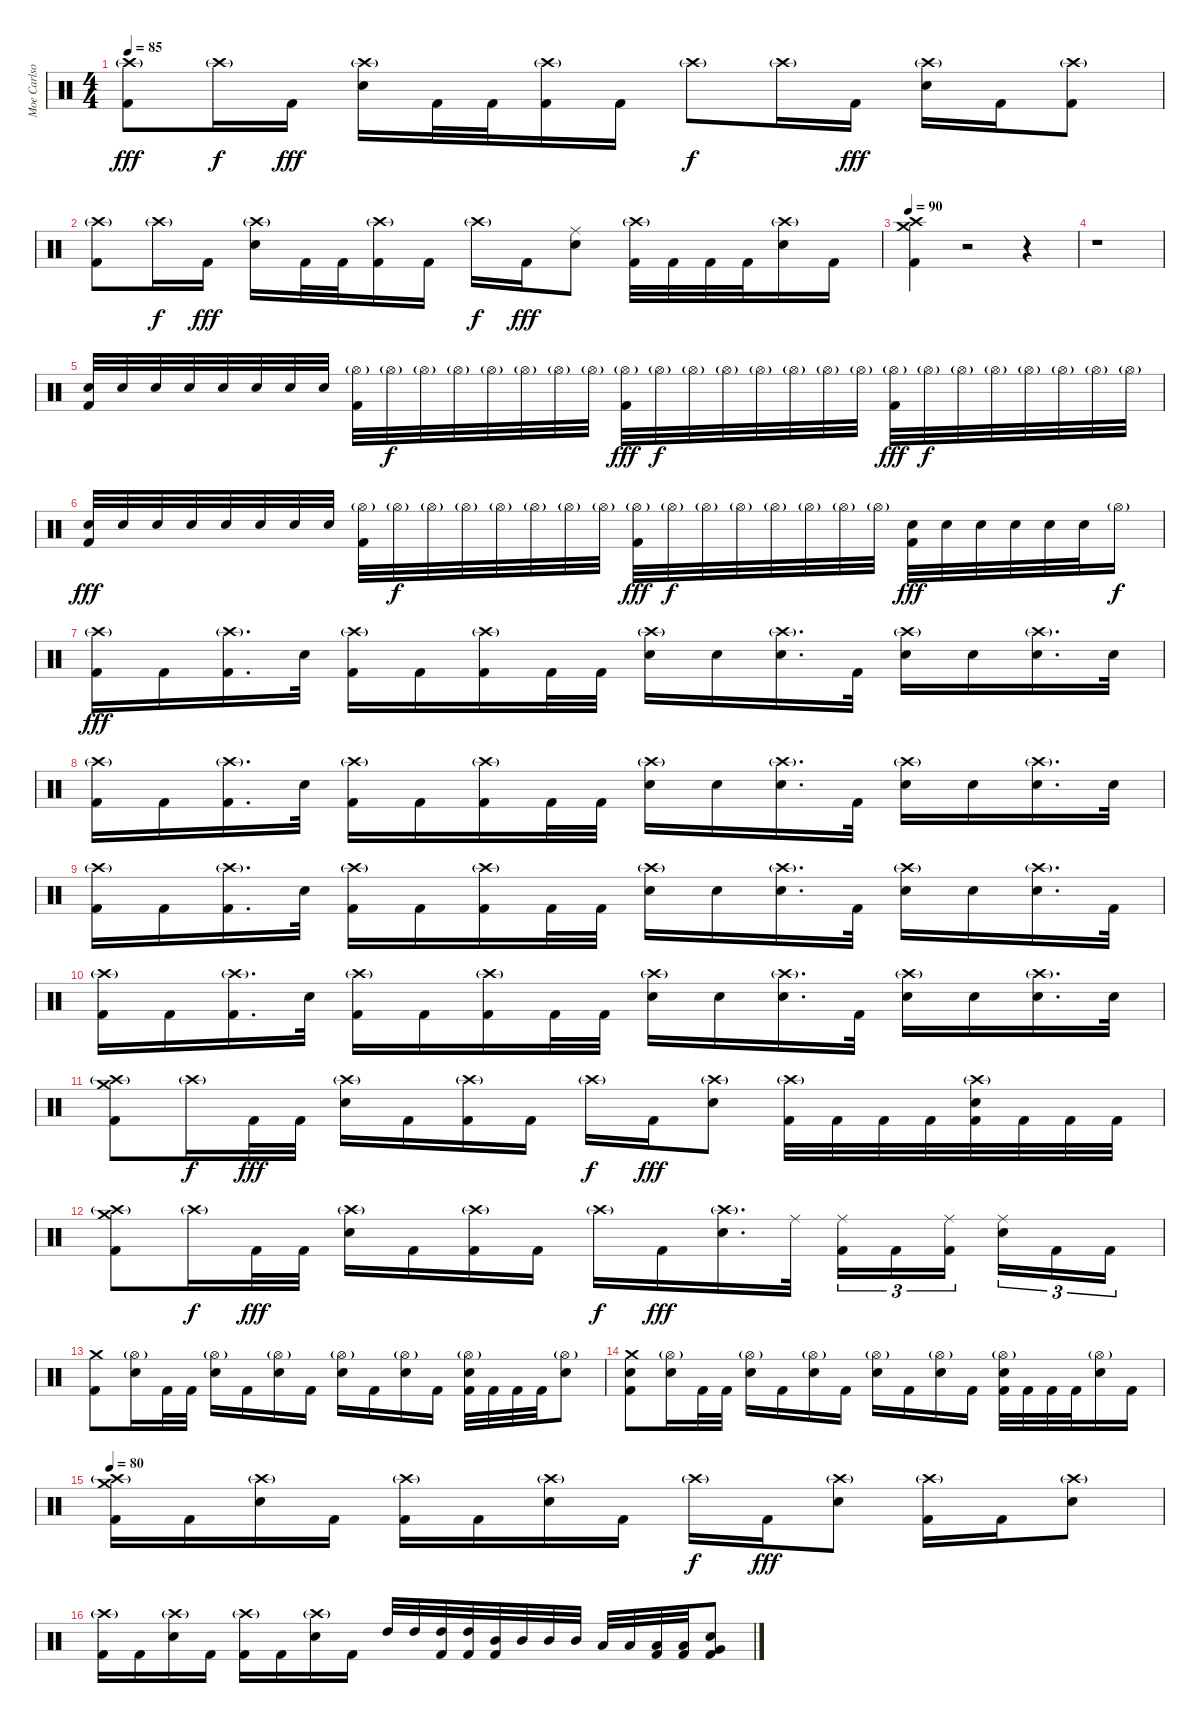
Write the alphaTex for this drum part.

\track ("Moe Carlson" "Moe Carlso") {instrument percussion}
\staff {score}
\articulation defaults
\ts (4 4)
\tempo 85
\clef neutral
\ks c
("Crash high (hit)"{g} "Kick (hit) 2").8{dy fff} "Crash high (hit)"{g}.16{dy f} "Kick (hit) 2".16{dy fff} ("Crash high (hit)"{g} "Electric Snare (hit)").16 "Kick (hit) 2".32 "Kick (hit) 2".32 ("Crash high (hit)"{g} "Kick (hit) 2").16 "Kick (hit) 2".16 "Crash high (hit)"{g}.8{dy f} "Crash high (hit)"{g}.16 "Kick (hit) 2".16{dy fff} ("Crash high (hit)"{g} "Electric Snare (hit)").16 "Kick (hit) 2".16 ("Crash high (hit)"{g} "Kick (hit) 2").8 |
("Crash high (hit)"{g} "Kick (hit) 2").8 "Crash high (hit)"{g}.16{dy f} "Kick (hit) 2".16{dy fff} ("Crash high (hit)"{g} "Electric Snare (hit)").16 "Kick (hit) 2".32 "Kick (hit) 2".32 ("Crash high (hit)"{g} "Kick (hit) 2").16 "Kick (hit) 2".16 "Crash high (hit)"{g}.16{dy f} "Kick (hit) 2".16{dy fff} ("Ride (middle)" "Electric Snare (hit)").8 ("Crash high (hit)"{g} "Kick (hit) 2").32 "Kick (hit) 2".32 "Kick (hit) 2".32 "Kick (hit) 2".32 ("Crash high (hit)"{g} "Electric Snare (hit)").16 "Kick (hit) 2".16 |
\tempo 90
("Crash high (hit)" "Crash medium (hit)" "Kick (hit) 2").4 r.2 r.4 |
r.1 |
("Electric Snare (hit)" "Kick (hit) 2").32{volume 12} "Electric Snare (hit)".32 "Electric Snare (hit)".32 "Electric Snare (hit)".32 "Electric Snare (hit)".32 "Electric Snare (hit)".32 "Electric Snare (hit)".32 "Electric Snare (hit)".32 ("Hi-Hat (open)"{g} "Kick (hit) 2").32 "Hi-Hat (open)"{g}.32{dy f} "Hi-Hat (open)"{g}.32 "Hi-Hat (open)"{g}.32 "Hi-Hat (open)"{g}.32 "Hi-Hat (open)"{g}.32 "Hi-Hat (open)"{g}.32 "Hi-Hat (open)"{g}.32 ("Hi-Hat (open)"{g} "Kick (hit) 2").32{dy fff} "Hi-Hat (open)"{g}.32{dy f} "Hi-Hat (open)"{g}.32 "Hi-Hat (open)"{g}.32 "Hi-Hat (open)"{g}.32 "Hi-Hat (open)"{g}.32 "Hi-Hat (open)"{g}.32 "Hi-Hat (open)"{g}.32 ("Hi-Hat (open)"{g} "Kick (hit) 2").32{dy fff} "Hi-Hat (open)"{g}.32{dy f} "Hi-Hat (open)"{g}.32 "Hi-Hat (open)"{g}.32 "Hi-Hat (open)"{g}.32 "Hi-Hat (open)"{g}.32 "Hi-Hat (open)"{g}.32 "Hi-Hat (open)"{g}.32 |
("Electric Snare (hit)" "Kick (hit) 2").32{dy fff} "Electric Snare (hit)".32 "Electric Snare (hit)".32 "Electric Snare (hit)".32 "Electric Snare (hit)".32 "Electric Snare (hit)".32 "Electric Snare (hit)".32 "Electric Snare (hit)".32 ("Hi-Hat (open)"{g} "Kick (hit) 2").32 "Hi-Hat (open)"{g}.32{dy f} "Hi-Hat (open)"{g}.32 "Hi-Hat (open)"{g}.32 "Hi-Hat (open)"{g}.32 "Hi-Hat (open)"{g}.32 "Hi-Hat (open)"{g}.32 "Hi-Hat (open)"{g}.32 ("Hi-Hat (open)"{g} "Kick (hit) 2").32{dy fff} "Hi-Hat (open)"{g}.32{dy f} "Hi-Hat (open)"{g}.32 "Hi-Hat (open)"{g}.32 "Hi-Hat (open)"{g}.32 "Hi-Hat (open)"{g}.32 "Hi-Hat (open)"{g}.32 "Hi-Hat (open)"{g}.32 ("Electric Snare (hit)" "Kick (hit) 2").32{dy fff} "Electric Snare (hit)".32 "Electric Snare (hit)".32 "Electric Snare (hit)".32 "Electric Snare (hit)".32 "Electric Snare (hit)".32 "Hi-Hat (open)"{g}.16{dy f} |
("Crash high (hit)"{g} "Kick (hit) 2").16{dy fff} "Kick (hit) 2".16 ("Crash high (hit)"{g} "Kick (hit) 2").16{d} "Electric Snare (hit)".32 ("Crash high (hit)"{g} "Kick (hit) 2").16 "Kick (hit) 2".16 ("Crash high (hit)"{g} "Kick (hit) 2").16 "Kick (hit) 2".32 "Kick (hit) 2".32 ("Crash high (hit)"{g} "Electric Snare (hit)").16 "Electric Snare (hit)".16 ("Crash high (hit)"{g} "Electric Snare (hit)").16{d} "Kick (hit) 2".32 ("Crash high (hit)"{g} "Electric Snare (hit)").16 "Electric Snare (hit)".16 ("Crash high (hit)"{g} "Electric Snare (hit)").16{d} "Electric Snare (hit)".32 |
("Crash high (hit)"{g} "Kick (hit) 2").16 "Kick (hit) 2".16 ("Crash high (hit)"{g} "Kick (hit) 2").16{d} "Electric Snare (hit)".32 ("Crash high (hit)"{g} "Kick (hit) 2").16 "Kick (hit) 2".16 ("Crash high (hit)"{g} "Kick (hit) 2").16 "Kick (hit) 2".32 "Kick (hit) 2".32 ("Crash high (hit)"{g} "Electric Snare (hit)").16 "Electric Snare (hit)".16 ("Crash high (hit)"{g} "Electric Snare (hit)").16{d} "Kick (hit) 2".32 ("Crash high (hit)"{g} "Electric Snare (hit)").16 "Electric Snare (hit)".16 ("Crash high (hit)"{g} "Electric Snare (hit)").16{d} "Electric Snare (hit)".32 |
("Crash high (hit)"{g} "Kick (hit) 2").16 "Kick (hit) 2".16 ("Crash high (hit)"{g} "Kick (hit) 2").16{d} "Electric Snare (hit)".32 ("Crash high (hit)"{g} "Kick (hit) 2").16 "Kick (hit) 2".16 ("Crash high (hit)"{g} "Kick (hit) 2").16 "Kick (hit) 2".32 "Kick (hit) 2".32 ("Crash high (hit)"{g} "Electric Snare (hit)").16 "Electric Snare (hit)".16 ("Crash high (hit)"{g} "Electric Snare (hit)").16{d} "Kick (hit) 2".32 ("Crash high (hit)"{g} "Electric Snare (hit)").16 "Electric Snare (hit)".16 ("Crash high (hit)"{g} "Electric Snare (hit)").16{d} "Kick (hit) 2".32 |
("Crash high (hit)"{g} "Kick (hit) 2").16 "Kick (hit) 2".16 ("Crash high (hit)"{g} "Kick (hit) 2").16{d} "Electric Snare (hit)".32 ("Crash high (hit)"{g} "Kick (hit) 2").16 "Kick (hit) 2".16 ("Crash high (hit)"{g} "Kick (hit) 2").16 "Kick (hit) 2".32 "Kick (hit) 2".32 ("Crash high (hit)"{g} "Electric Snare (hit)").16 "Electric Snare (hit)".16 ("Crash high (hit)"{g} "Electric Snare (hit)").16{d} "Kick (hit) 2".32 ("Crash high (hit)"{g} "Electric Snare (hit)").16 "Electric Snare (hit)".16 ("Crash high (hit)"{g} "Electric Snare (hit)").16{d} "Electric Snare (hit)".32 |
("Crash high (hit)"{g} "Crash medium (hit)" "Kick (hit) 2").8{volume 16} "Crash high (hit)"{g}.16{dy f} "Kick (hit) 2".32{dy fff} "Kick (hit) 2".32 ("Crash high (hit)"{g} "Electric Snare (hit)").16 "Kick (hit) 2".16 ("Crash high (hit)"{g} "Kick (hit) 2").16 "Kick (hit) 2".16 "Crash high (hit)"{g}.16{dy f} "Kick (hit) 2".16{dy fff} ("Crash high (hit)"{g} "Electric Snare (hit)").8 ("Crash high (hit)"{g} "Kick (hit) 2").32 "Kick (hit) 2".32 "Kick (hit) 2".32 "Kick (hit) 2".32 ("Crash high (hit)"{g} "Electric Snare (hit)" "Kick (hit) 2").32 "Kick (hit) 2".32 "Kick (hit) 2".32 "Kick (hit) 2".32 |
("Crash high (hit)"{g} "Crash medium (hit)" "Kick (hit) 2").8 "Crash high (hit)"{g}.16{dy f} "Kick (hit) 2".32{dy fff} "Kick (hit) 2".32 ("Crash high (hit)"{g} "Electric Snare (hit)").16 "Kick (hit) 2".16 ("Crash high (hit)"{g} "Kick (hit) 2").16 "Kick (hit) 2".16 "Crash high (hit)"{g}.16{dy f} "Kick (hit) 2".16{dy fff} ("Crash high (hit)"{g} "Electric Snare (hit)").16{d} "Ride (middle)".32 ("Ride (middle)" "Kick (hit) 2").16{tu (3 2)} "Kick (hit) 2".16{tu (3 2)} ("Ride (middle)" "Kick (hit) 2").16{tu (3 2) beam splitsecondary} ("Ride (middle)" "Electric Snare (hit)").16{tu (3 2)} "Kick (hit) 2".16{tu (3 2)} "Kick (hit) 2".16{tu (3 2)} |
("Crash medium (hit)" "Kick (hit) 2").8 ("Hi-Hat (open)"{g} "Electric Snare (hit)").16 "Kick (hit) 2".32 "Kick (hit) 2".32 ("Hi-Hat (open)"{g} "Electric Snare (hit)").16 "Kick (hit) 2".16 ("Hi-Hat (open)"{g} "Electric Snare (hit)").16 "Kick (hit) 2".16 ("Hi-Hat (open)"{g} "Electric Snare (hit)").16 "Kick (hit) 2".16 ("Hi-Hat (open)"{g} "Electric Snare (hit)").16 "Kick (hit) 2".16 ("Hi-Hat (open)"{g} "Electric Snare (hit)" "Kick (hit) 2").32 "Kick (hit) 2".32 "Kick (hit) 2".32 "Kick (hit) 2".32 ("Hi-Hat (open)"{g} "Electric Snare (hit)").8 |
("Crash medium (hit)" "Electric Snare (hit)" "Kick (hit) 2").8 ("Hi-Hat (open)"{g} "Electric Snare (hit)").16 "Kick (hit) 2".32 "Kick (hit) 2".32 ("Hi-Hat (open)"{g} "Electric Snare (hit)").16 "Kick (hit) 2".16 ("Hi-Hat (open)"{g} "Electric Snare (hit)").16 "Kick (hit) 2".16 ("Hi-Hat (open)"{g} "Electric Snare (hit)").16 "Kick (hit) 2".16 ("Hi-Hat (open)"{g} "Electric Snare (hit)").16 "Kick (hit) 2".16 ("Hi-Hat (open)"{g} "Electric Snare (hit)" "Kick (hit) 2").32 "Kick (hit) 2".32 "Kick (hit) 2".32 "Kick (hit) 2".32 ("Hi-Hat (open)"{g} "Electric Snare (hit)").16 "Kick (hit) 2".16 |
\tempo 80
("Crash high (hit)"{g} "Crash medium (hit)" "Kick (hit) 2").16 "Kick (hit) 2".16 ("Crash high (hit)"{g} "Electric Snare (hit)").16 "Kick (hit) 2".16 ("Crash high (hit)"{g} "Kick (hit) 2").16 "Kick (hit) 2".16 ("Crash high (hit)"{g} "Electric Snare (hit)").16 "Kick (hit) 2".16 "Crash high (hit)"{g}.16{dy f} "Kick (hit) 2".16{dy fff} ("Crash high (hit)"{g} "Electric Snare (hit)").8 ("Crash high (hit)"{g} "Kick (hit) 2").16 "Kick (hit) 2".16 ("Crash high (hit)"{g} "Electric Snare (hit)").8 |
("Crash high (hit)"{g} "Kick (hit) 2").16 "Kick (hit) 2".16 ("Crash high (hit)"{g} "Electric Snare (hit)").16 "Kick (hit) 2".16 ("Crash high (hit)"{g} "Kick (hit) 2").16 "Kick (hit) 2".16 ("Crash high (hit)"{g} "Electric Snare (hit)").16 "Kick (hit) 2".16 "High Tom (hit)".32 "High Tom (hit)".32 ("High Tom (hit)" "Kick (hit) 2").32 ("High Tom (hit)" "Kick (hit) 2").32 ("Mid Tom (hit)" "Kick (hit) 2").32 "Mid Tom (hit)".32 "Mid Tom (hit)".32 "Mid Tom (hit)".32 "Low Tom (hit)".32 "Low Tom (hit)".32 ("Low Tom (hit)" "Kick (hit) 2").32 ("Low Tom (hit)" "Kick (hit) 2").32 ("Electric Snare (hit)" "Very Low Tom (hit)" "Kick (hit) 2").8
